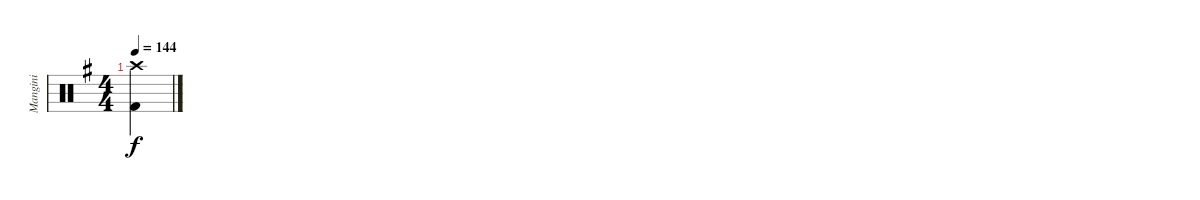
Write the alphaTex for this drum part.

\track ("Mangini" "Mangini") {instrument percussion}
\staff {score}
\articulation defaults
\ts (4 4)
\tempo 144
\clef neutral
\ks eminor
("Crash high (hit)" "Kick (hit) 2").4{dy f}
